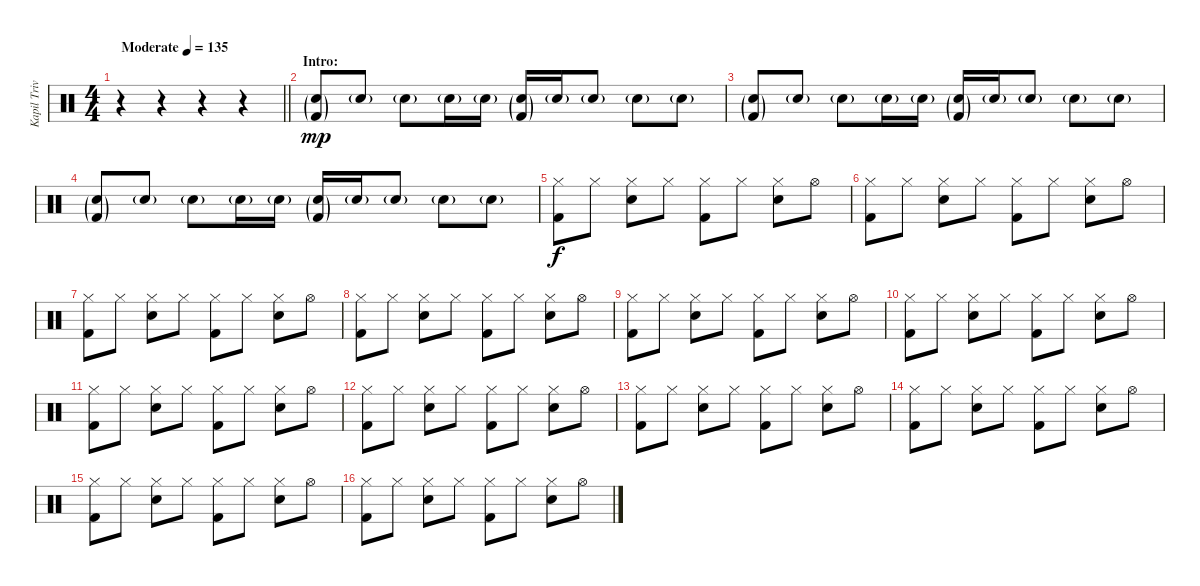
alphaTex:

\track ("Kapil Trivedi (Percussion)" "Kapil Triv") {instrument percussion}
\staff {score}
\articulation defaults
\ts (4 4)
\tempo (135 "Moderate")
\clef neutral
\barLineRight lightlight
\ks c
r.4{dy mp volume 0} r.4{volume 13} r.4 r.4 |
\section ("" "Intro:")
("Snare (hit) 2"{g} "Kick (hit) 2"{g}).8 "Snare (hit) 2"{g}.8 "Snare (hit) 2"{g}.8 "Snare (hit) 2"{g}.16 "Snare (hit) 2"{g}.16 ("Snare (hit) 2"{g} "Kick (hit) 2"{g}).16 "Snare (hit) 2"{g}.16 "Snare (hit) 2"{g}.8 "Snare (hit) 2"{g}.8 "Snare (hit) 2"{g}.8 |
("Snare (hit) 2"{g} "Kick (hit) 2"{g}).8 "Snare (hit) 2"{g}.8 "Snare (hit) 2"{g}.8 "Snare (hit) 2"{g}.16 "Snare (hit) 2"{g}.16 ("Snare (hit) 2"{g} "Kick (hit) 2"{g}).16 "Snare (hit) 2"{g}.16 "Snare (hit) 2"{g}.8 "Snare (hit) 2"{g}.8 "Snare (hit) 2"{g}.8 |
("Snare (hit) 2"{g} "Kick (hit) 2"{g}).8 "Snare (hit) 2"{g}.8 "Snare (hit) 2"{g}.8 "Snare (hit) 2"{g}.16 "Snare (hit) 2"{g}.16 ("Snare (hit) 2"{g} "Kick (hit) 2"{g}).16 "Snare (hit) 2"{g}.16 "Snare (hit) 2"{g}.8 "Snare (hit) 2"{g}.8 "Snare (hit) 2"{g}.8 |
("Hi-Hat (closed)" "Kick (hit) 2").8{dy f} "Hi-Hat (closed)".8 ("Hi-Hat (closed)" "Snare (hit) 2").8 "Hi-Hat (closed)".8 ("Hi-Hat (closed)" "Kick (hit) 2").8 "Hi-Hat (closed)".8 ("Hi-Hat (closed)" "Snare (hit) 2").8 "Hi-Hat (open)".8 |
("Hi-Hat (closed)" "Kick (hit) 2").8 "Hi-Hat (closed)".8 ("Hi-Hat (closed)" "Snare (hit) 2").8 "Hi-Hat (closed)".8 ("Hi-Hat (closed)" "Kick (hit) 2").8 "Hi-Hat (closed)".8 ("Hi-Hat (closed)" "Snare (hit) 2").8 "Hi-Hat (open)".8 |
("Hi-Hat (closed)" "Kick (hit) 2").8 "Hi-Hat (closed)".8 ("Hi-Hat (closed)" "Snare (hit) 2").8 "Hi-Hat (closed)".8 ("Hi-Hat (closed)" "Kick (hit) 2").8 "Hi-Hat (closed)".8 ("Hi-Hat (closed)" "Snare (hit) 2").8 "Hi-Hat (open)".8 |
("Hi-Hat (closed)" "Kick (hit) 2").8 "Hi-Hat (closed)".8 ("Hi-Hat (closed)" "Snare (hit) 2").8 "Hi-Hat (closed)".8 ("Hi-Hat (closed)" "Kick (hit) 2").8 "Hi-Hat (closed)".8 ("Hi-Hat (closed)" "Snare (hit) 2").8 "Hi-Hat (open)".8 |
("Hi-Hat (closed)" "Kick (hit) 2").8 "Hi-Hat (closed)".8 ("Hi-Hat (closed)" "Snare (hit) 2").8 "Hi-Hat (closed)".8 ("Hi-Hat (closed)" "Kick (hit) 2").8 "Hi-Hat (closed)".8 ("Hi-Hat (closed)" "Snare (hit) 2").8 "Hi-Hat (open)".8 |
("Hi-Hat (closed)" "Kick (hit) 2").8 "Hi-Hat (closed)".8 ("Hi-Hat (closed)" "Snare (hit) 2").8 "Hi-Hat (closed)".8 ("Hi-Hat (closed)" "Kick (hit) 2").8 "Hi-Hat (closed)".8 ("Hi-Hat (closed)" "Snare (hit) 2").8 "Hi-Hat (open)".8 |
("Hi-Hat (closed)" "Kick (hit) 2").8 "Hi-Hat (closed)".8 ("Hi-Hat (closed)" "Snare (hit) 2").8 "Hi-Hat (closed)".8 ("Hi-Hat (closed)" "Kick (hit) 2").8 "Hi-Hat (closed)".8 ("Hi-Hat (closed)" "Snare (hit) 2").8 "Hi-Hat (open)".8 |
("Hi-Hat (closed)" "Kick (hit) 2").8 "Hi-Hat (closed)".8 ("Hi-Hat (closed)" "Snare (hit) 2").8 "Hi-Hat (closed)".8 ("Hi-Hat (closed)" "Kick (hit) 2").8 "Hi-Hat (closed)".8 ("Hi-Hat (closed)" "Snare (hit) 2").8 "Hi-Hat (open)".8 |
("Hi-Hat (closed)" "Kick (hit) 2").8 "Hi-Hat (closed)".8 ("Hi-Hat (closed)" "Snare (hit) 2").8 "Hi-Hat (closed)".8 ("Hi-Hat (closed)" "Kick (hit) 2").8 "Hi-Hat (closed)".8 ("Hi-Hat (closed)" "Snare (hit) 2").8 "Hi-Hat (open)".8 |
("Hi-Hat (closed)" "Kick (hit) 2").8 "Hi-Hat (closed)".8 ("Hi-Hat (closed)" "Snare (hit) 2").8 "Hi-Hat (closed)".8 ("Hi-Hat (closed)" "Kick (hit) 2").8 "Hi-Hat (closed)".8 ("Hi-Hat (closed)" "Snare (hit) 2").8 "Hi-Hat (open)".8 |
("Hi-Hat (closed)" "Kick (hit) 2").8 "Hi-Hat (closed)".8 ("Hi-Hat (closed)" "Snare (hit) 2").8 "Hi-Hat (closed)".8 ("Hi-Hat (closed)" "Kick (hit) 2").8 "Hi-Hat (closed)".8 ("Hi-Hat (closed)" "Snare (hit) 2").8 "Hi-Hat (open)".8 |
("Hi-Hat (closed)" "Kick (hit) 2").8 "Hi-Hat (closed)".8 ("Hi-Hat (closed)" "Snare (hit) 2").8 "Hi-Hat (closed)".8 ("Hi-Hat (closed)" "Kick (hit) 2").8 "Hi-Hat (closed)".8 ("Hi-Hat (closed)" "Snare (hit) 2").8 "Hi-Hat (open)".8
